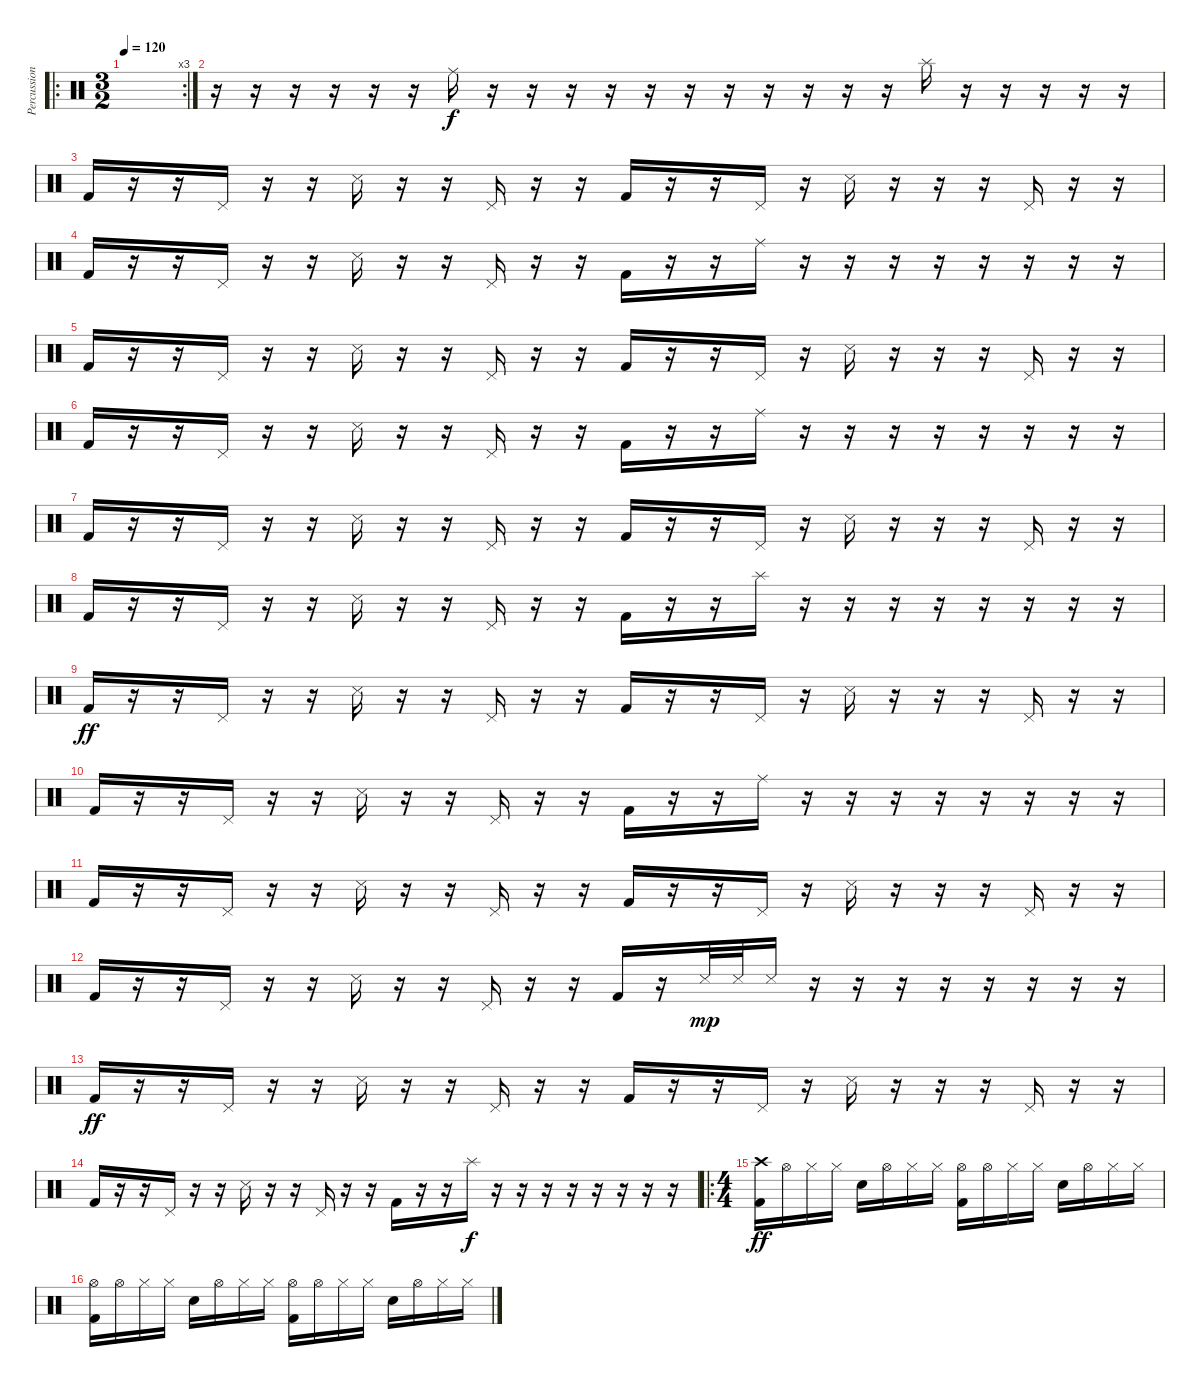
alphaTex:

\track ("Percussion" "Percussion") {instrument percussion}
\staff {score}
\articulation defaults
\ro
\rc 3
\ts (3 2)
\tempo 120
\clef neutral
\ks c
|
r.16 r.16 r.16 r.16 r.16 r.16 "Ride (middle)".16 r.16 r.16 r.16 r.16 r.16 r.16 r.16 r.16 r.16 r.16 r.16 "Splash (hit)".16 r.16 r.16 r.16 r.16 r.16 |
"Kick (hit) 2".16 r.16 r.16 "Pedal Hi-Hat (hit)".16 r.16 r.16 "Snare (side stick) 3".16 r.16 r.16 "Pedal Hi-Hat (hit)".16 r.16 r.16 "Kick (hit) 2".16 r.16 r.16 "Pedal Hi-Hat (hit)".16 r.16 "Snare (side stick) 3".16 r.16 r.16 r.16 "Pedal Hi-Hat (hit)".16 r.16 r.16 |
"Kick (hit) 2".16 r.16 r.16 "Pedal Hi-Hat (hit)".16 r.16 r.16 "Snare (side stick) 3".16 r.16 r.16 "Pedal Hi-Hat (hit)".16 r.16 r.16 "Kick (hit) 2".16 r.16 r.16 "Ride (middle)".16 r.16 r.16 r.16 r.16 r.16 r.16 r.16 r.16 |
"Kick (hit) 2".16 r.16 r.16 "Pedal Hi-Hat (hit)".16 r.16 r.16 "Snare (side stick) 3".16 r.16 r.16 "Pedal Hi-Hat (hit)".16 r.16 r.16 "Kick (hit) 2".16 r.16 r.16 "Pedal Hi-Hat (hit)".16 r.16 "Snare (side stick) 3".16 r.16 r.16 r.16 "Pedal Hi-Hat (hit)".16 r.16 r.16 |
"Kick (hit) 2".16 r.16 r.16 "Pedal Hi-Hat (hit)".16 r.16 r.16 "Snare (side stick) 3".16 r.16 r.16 "Pedal Hi-Hat (hit)".16 r.16 r.16 "Kick (hit) 2".16 r.16 r.16 "Ride (middle)".16 r.16 r.16 r.16 r.16 r.16 r.16 r.16 r.16 |
"Kick (hit) 2".16 r.16 r.16 "Pedal Hi-Hat (hit)".16 r.16 r.16 "Snare (side stick) 3".16 r.16 r.16 "Pedal Hi-Hat (hit)".16 r.16 r.16 "Kick (hit) 2".16 r.16 r.16 "Pedal Hi-Hat (hit)".16 r.16 "Snare (side stick) 3".16 r.16 r.16 r.16 "Pedal Hi-Hat (hit)".16 r.16 r.16 |
"Kick (hit) 2".16 r.16 r.16 "Pedal Hi-Hat (hit)".16 r.16 r.16 "Snare (side stick) 3".16 r.16 r.16 "Pedal Hi-Hat (hit)".16 r.16 r.16 "Kick (hit) 2".16 r.16 r.16 "Splash (hit)".16{dy f} r.16 r.16 r.16 r.16 r.16 r.16 r.16 r.16 |
"Kick (hit) 2".16{dy ff} r.16 r.16 "Pedal Hi-Hat (hit)".16 r.16 r.16 "Snare (side stick) 3".16 r.16 r.16 "Pedal Hi-Hat (hit)".16 r.16 r.16 "Kick (hit) 2".16 r.16 r.16 "Pedal Hi-Hat (hit)".16 r.16 "Snare (side stick) 3".16 r.16 r.16 r.16 "Pedal Hi-Hat (hit)".16 r.16 r.16 |
"Kick (hit) 2".16 r.16 r.16 "Pedal Hi-Hat (hit)".16 r.16 r.16 "Snare (side stick) 3".16 r.16 r.16 "Pedal Hi-Hat (hit)".16 r.16 r.16 "Kick (hit) 2".16 r.16 r.16 "Ride (middle)".16 r.16 r.16 r.16 r.16 r.16 r.16 r.16 r.16 |
"Kick (hit) 2".16 r.16 r.16 "Pedal Hi-Hat (hit)".16 r.16 r.16 "Snare (side stick) 3".16 r.16 r.16 "Pedal Hi-Hat (hit)".16 r.16 r.16 "Kick (hit) 2".16 r.16 r.16 "Pedal Hi-Hat (hit)".16 r.16 "Snare (side stick) 3".16 r.16 r.16 r.16 "Pedal Hi-Hat (hit)".16 r.16 r.16 |
"Kick (hit) 2".16 r.16 r.16 "Pedal Hi-Hat (hit)".16 r.16 r.16 "Snare (side stick) 3".16 r.16 r.16 "Pedal Hi-Hat (hit)".16 r.16 r.16 "Kick (hit) 2".16 r.16 "Snare (side stick) 3".32{dy mp} "Snare (side stick) 3".32 "Snare (side stick) 3".16 r.16 r.16 r.16 r.16 r.16 r.16 r.16 r.16 |
"Kick (hit) 2".16{dy ff} r.16 r.16 "Pedal Hi-Hat (hit)".16 r.16 r.16 "Snare (side stick) 3".16 r.16 r.16 "Pedal Hi-Hat (hit)".16 r.16 r.16 "Kick (hit) 2".16 r.16 r.16 "Pedal Hi-Hat (hit)".16 r.16 "Snare (side stick) 3".16 r.16 r.16 r.16 "Pedal Hi-Hat (hit)".16 r.16 r.16 |
"Kick (hit) 2".16 r.16 r.16 "Pedal Hi-Hat (hit)".16 r.16 r.16 "Snare (side stick) 3".16 r.16 r.16 "Pedal Hi-Hat (hit)".16 r.16 r.16 "Kick (hit) 2".16 r.16 r.16 "Splash (hit)".16{dy f} r.16 r.16 r.16 r.16 r.16 r.16 r.16 r.16 |
\ro
\ts (4 4)
("Kick (hit) 2" "Crash high (hit)").16{dy ff} "Hi-Hat (open)".16 "Hi-Hat (closed)".16 "Hi-Hat (closed)".16 "Snare (hit) 2".16 "Hi-Hat (open)".16 "Hi-Hat (closed)".16 "Hi-Hat (closed)".16 ("Kick (hit) 2" "Hi-Hat (open)").16 "Hi-Hat (open)".16 "Hi-Hat (closed)".16 "Hi-Hat (closed)".16 "Snare (hit) 2".16 "Hi-Hat (open)".16 "Hi-Hat (closed)".16 "Hi-Hat (closed)".16 |
("Kick (hit) 2" "Hi-Hat (open)").16 "Hi-Hat (open)".16 "Hi-Hat (closed)".16 "Hi-Hat (closed)".16 "Snare (hit) 2".16 "Hi-Hat (open)".16 "Hi-Hat (closed)".16 "Hi-Hat (closed)".16 ("Kick (hit) 2" "Hi-Hat (open)").16 "Hi-Hat (open)".16 "Hi-Hat (closed)".16 "Hi-Hat (closed)".16 "Snare (hit) 2".16 "Hi-Hat (open)".16 "Hi-Hat (closed)".16 "Hi-Hat (closed)".16
